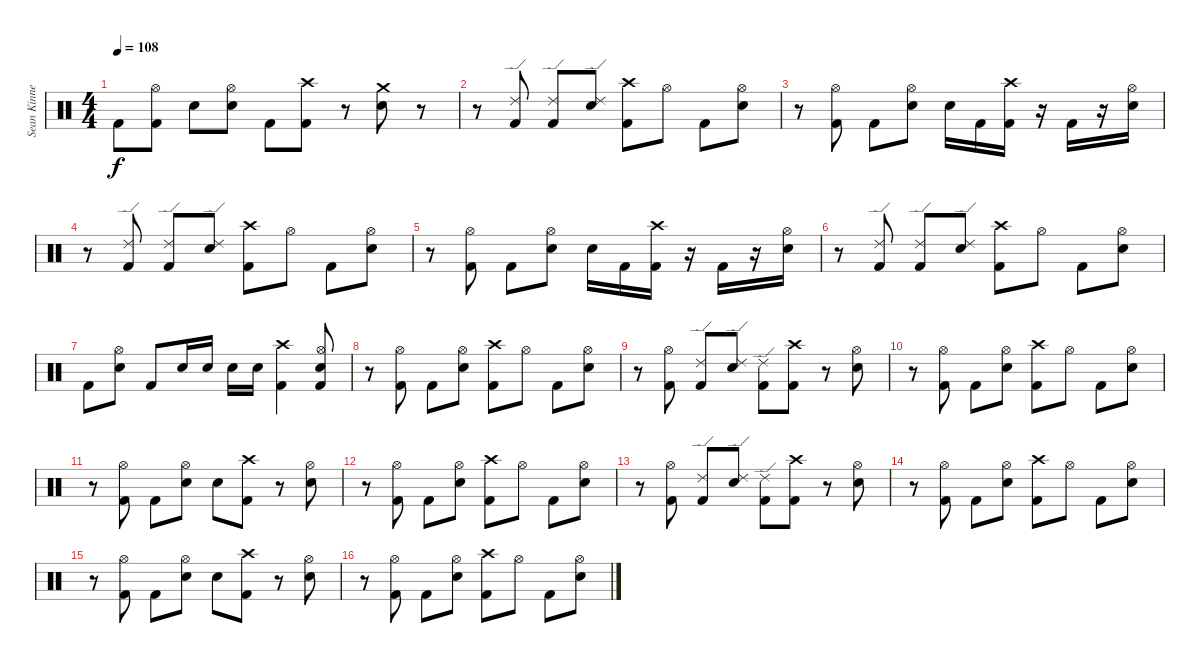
\track ("Sean Kinney" "Sean Kinne") {instrument percussion}
\staff {score}
\articulation defaults
\ts (4 4)
\tempo 108
\clef neutral
\ks c "Kick (hit) 2".8{dy f}
("Hi-Hat (open)" "Kick (hit) 2").8 "Electric Snare (hit)".8 ("Hi-Hat (open)" "Electric Snare (hit)").8 "Kick (hit) 2".8 ("Crash high (hit)" "Kick (hit) 2").8 r.8 ("Crash medium (hit)" "Electric Snare (hit)").8 r.8 |
r.8 ("Ride (edge) 2" "Kick (hit) 2").8 ("Ride (edge) 2" "Kick (hit) 2").8 ("Ride (edge) 2" "Electric Snare (hit)").8 ("Crash high (hit)" "Kick (hit) 2").8 "Hi-Hat (open)".8 "Kick (hit) 2".8 ("Hi-Hat (open)" "Electric Snare (hit)").8 |
r.8 ("Hi-Hat (open)" "Kick (hit) 2").8 "Kick (hit) 2".8 ("Hi-Hat (open)" "Electric Snare (hit)").8 "Electric Snare (hit)".16 "Kick (hit) 2".16 ("Crash high (hit)" "Kick (hit) 2").16 r.16 "Kick (hit) 2".16 r.16 ("Hi-Hat (open)" "Electric Snare (hit)").16 |
r.8 ("Ride (edge) 2" "Kick (hit) 2").8 ("Ride (edge) 2" "Kick (hit) 2").8 ("Ride (edge) 2" "Electric Snare (hit)").8 ("Crash high (hit)" "Kick (hit) 2").8 "Hi-Hat (open)".8 "Kick (hit) 2".8 ("Hi-Hat (open)" "Electric Snare (hit)").8 |
r.8 ("Hi-Hat (open)" "Kick (hit) 2").8 "Kick (hit) 2".8 ("Hi-Hat (open)" "Electric Snare (hit)").8 "Electric Snare (hit)".16 "Kick (hit) 2".16 ("Crash high (hit)" "Kick (hit) 2").16 r.16 "Kick (hit) 2".16 r.16 ("Hi-Hat (open)" "Electric Snare (hit)").16 |
r.8 ("Ride (edge) 2" "Kick (hit) 2").8 ("Ride (edge) 2" "Kick (hit) 2").8 ("Ride (edge) 2" "Electric Snare (hit)").8 ("Crash high (hit)" "Kick (hit) 2").8 "Hi-Hat (open)".8 "Kick (hit) 2".8 ("Hi-Hat (open)" "Electric Snare (hit)").8 |
"Kick (hit) 2".8 ("Hi-Hat (open)" "Electric Snare (hit)").8 "Kick (hit) 2".8 "Electric Snare (hit)".16 "Electric Snare (hit)".16 "Electric Snare (hit)".16 "Electric Snare (hit)".16 ("Crash high (hit)" "Kick (hit) 2").4 ("Hi-Hat (open)" "Electric Snare (hit)" "Kick (hit) 2").8 |
r.8 ("Hi-Hat (open)" "Kick (hit) 2").8 "Kick (hit) 2".8 ("Hi-Hat (open)" "Electric Snare (hit)").8 ("Crash high (hit)" "Kick (hit) 2").8 "Hi-Hat (open)".8 "Kick (hit) 2".8 ("Hi-Hat (open)" "Electric Snare (hit)").8 |
r.8 ("Hi-Hat (open)" "Kick (hit) 2").8 ("Ride (edge) 2" "Kick (hit) 2").8 ("Ride (edge) 2" "Electric Snare (hit)").8 ("Ride (edge) 2" "Kick (hit) 2").8 ("Crash high (hit)" "Kick (hit) 2").8 r.8 ("Hi-Hat (open)" "Electric Snare (hit)").8 |
r.8 ("Hi-Hat (open)" "Kick (hit) 2").8 "Kick (hit) 2".8 ("Hi-Hat (open)" "Electric Snare (hit)").8 ("Crash high (hit)" "Kick (hit) 2").8 "Hi-Hat (open)".8 "Kick (hit) 2".8 ("Hi-Hat (open)" "Electric Snare (hit)").8 |
r.8 ("Hi-Hat (open)" "Kick (hit) 2").8 "Kick (hit) 2".8 ("Hi-Hat (open)" "Electric Snare (hit)").8 "Electric Snare (hit)".8 ("Crash high (hit)" "Kick (hit) 2").8 r.8 ("Hi-Hat (open)" "Electric Snare (hit)").8 |
r.8 ("Hi-Hat (open)" "Kick (hit) 2").8 "Kick (hit) 2".8 ("Hi-Hat (open)" "Electric Snare (hit)").8 ("Crash high (hit)" "Kick (hit) 2").8 "Hi-Hat (open)".8 "Kick (hit) 2".8 ("Hi-Hat (open)" "Electric Snare (hit)").8 |
r.8 ("Hi-Hat (open)" "Kick (hit) 2").8 ("Ride (edge) 2" "Kick (hit) 2").8 ("Ride (edge) 2" "Electric Snare (hit)").8 ("Ride (edge) 2" "Kick (hit) 2").8 ("Crash high (hit)" "Kick (hit) 2").8 r.8 ("Hi-Hat (open)" "Electric Snare (hit)").8 |
r.8 ("Hi-Hat (open)" "Kick (hit) 2").8 "Kick (hit) 2".8 ("Hi-Hat (open)" "Electric Snare (hit)").8 ("Crash high (hit)" "Kick (hit) 2").8 "Hi-Hat (open)".8 "Kick (hit) 2".8 ("Hi-Hat (open)" "Electric Snare (hit)").8 |
r.8 ("Hi-Hat (open)" "Kick (hit) 2").8 "Kick (hit) 2".8 ("Hi-Hat (open)" "Electric Snare (hit)").8 "Electric Snare (hit)".8 ("Crash high (hit)" "Kick (hit) 2").8 r.8 ("Hi-Hat (open)" "Electric Snare (hit)").8 |
r.8 ("Hi-Hat (open)" "Kick (hit) 2").8 "Kick (hit) 2".8 ("Hi-Hat (open)" "Electric Snare (hit)").8 ("Crash high (hit)" "Kick (hit) 2").8 "Hi-Hat (open)".8 "Kick (hit) 2".8 ("Hi-Hat (open)" "Electric Snare (hit)").8
